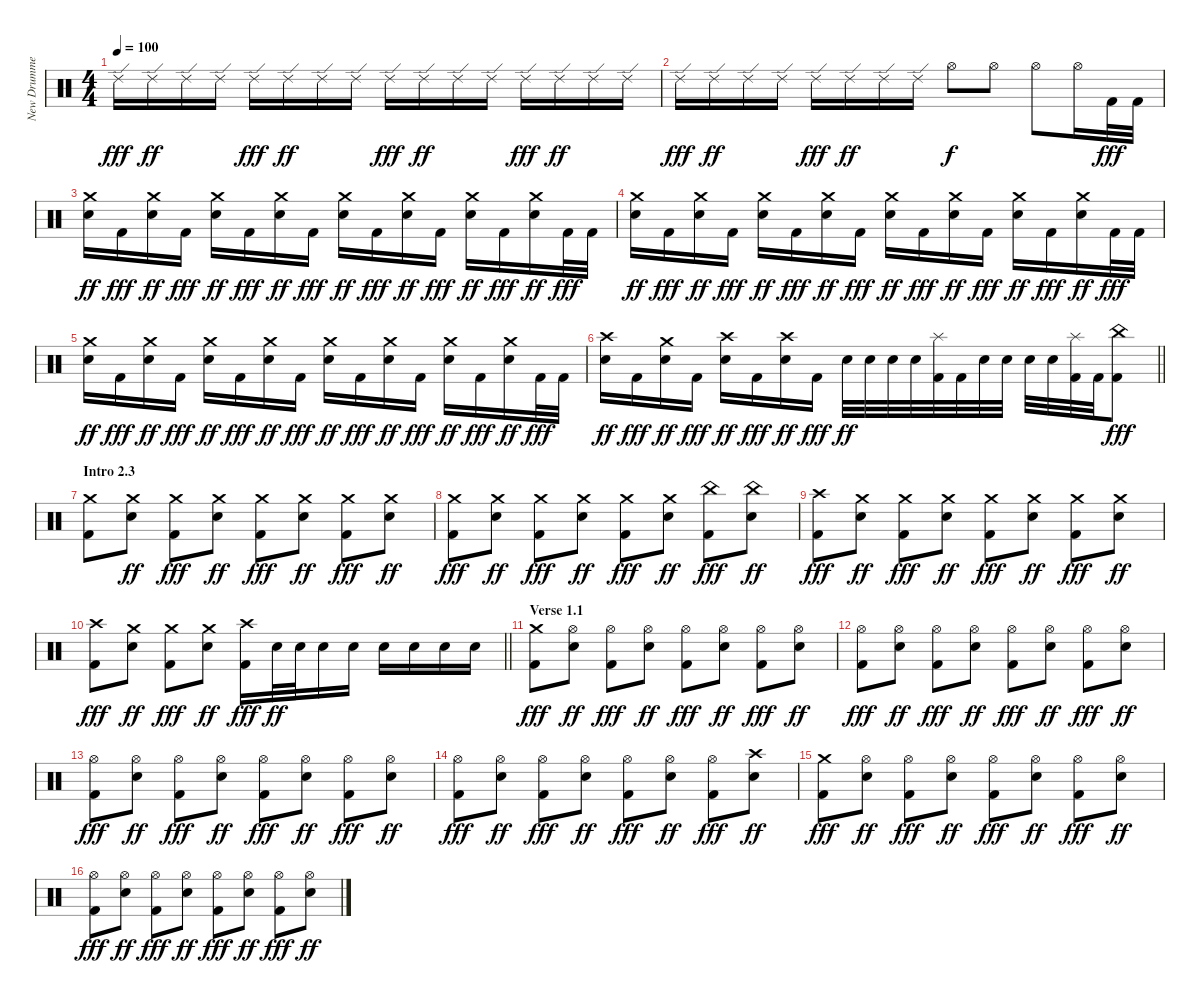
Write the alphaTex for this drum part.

\track ("New Drummer" "New Drumme") {instrument percussion}
\staff {score}
\articulation defaults
\ts (4 4)
\tempo 100
\clef neutral
\ks c "Ride (edge) 2".16{dy fff} "Ride (edge) 2".16{dy ff} "Ride (edge) 2".16 "Ride (edge) 2".16 "Ride (edge) 2".16{dy fff} "Ride (edge) 2".16{dy ff} "Ride (edge) 2".16 "Ride (edge) 2".16 "Ride (edge) 2".16{dy fff} "Ride (edge) 2".16{dy ff} "Ride (edge) 2".16 "Ride (edge) 2".16 "Ride (edge) 2".16{dy fff} "Ride (edge) 2".16{dy ff} "Ride (edge) 2".16 "Ride (edge) 2".16
|
"Ride (edge) 2".16{dy fff} "Ride (edge) 2".16{dy ff} "Ride (edge) 2".16 "Ride (edge) 2".16 "Ride (edge) 2".16{dy fff} "Ride (edge) 2".16{dy ff} "Ride (edge) 2".16 "Ride (edge) 2".16 "Hi-Hat (open)".8{dy f} "Hi-Hat (open)".8 "Hi-Hat (open)".8 "Hi-Hat (open)".16 "Kick (hit) 2".32{dy fff} "Kick (hit) 2".32 |
("Crash medium (hit)" "Electric Snare (hit)").16{dy ff} "Kick (hit) 2".16{dy fff} ("Crash medium (hit)" "Electric Snare (hit)").16{dy ff} "Kick (hit) 2".16{dy fff} ("Crash medium (hit)" "Electric Snare (hit)").16{dy ff} "Kick (hit) 2".16{dy fff} ("Crash medium (hit)" "Electric Snare (hit)").16{dy ff} "Kick (hit) 2".16{dy fff} ("Crash medium (hit)" "Electric Snare (hit)").16{dy ff} "Kick (hit) 2".16{dy fff} ("Crash medium (hit)" "Electric Snare (hit)").16{dy ff} "Kick (hit) 2".16{dy fff} ("Crash medium (hit)" "Electric Snare (hit)").16{dy ff} "Kick (hit) 2".16{dy fff} ("Crash medium (hit)" "Electric Snare (hit)").16{dy ff} "Kick (hit) 2".32{dy fff} "Kick (hit) 2".32 |
("Crash medium (hit)" "Electric Snare (hit)").16{dy ff} "Kick (hit) 2".16{dy fff} ("Crash medium (hit)" "Electric Snare (hit)").16{dy ff} "Kick (hit) 2".16{dy fff} ("Crash medium (hit)" "Electric Snare (hit)").16{dy ff} "Kick (hit) 2".16{dy fff} ("Crash medium (hit)" "Electric Snare (hit)").16{dy ff} "Kick (hit) 2".16{dy fff} ("Crash medium (hit)" "Electric Snare (hit)").16{dy ff} "Kick (hit) 2".16{dy fff} ("Crash medium (hit)" "Electric Snare (hit)").16{dy ff} "Kick (hit) 2".16{dy fff} ("Crash medium (hit)" "Electric Snare (hit)").16{dy ff} "Kick (hit) 2".16{dy fff} ("Crash medium (hit)" "Electric Snare (hit)").16{dy ff} "Kick (hit) 2".32{dy fff} "Kick (hit) 2".32 |
("Crash medium (hit)" "Electric Snare (hit)").16{dy ff} "Kick (hit) 2".16{dy fff} ("Crash medium (hit)" "Electric Snare (hit)").16{dy ff} "Kick (hit) 2".16{dy fff} ("Crash medium (hit)" "Electric Snare (hit)").16{dy ff} "Kick (hit) 2".16{dy fff} ("Crash medium (hit)" "Electric Snare (hit)").16{dy ff} "Kick (hit) 2".16{dy fff} ("Crash medium (hit)" "Electric Snare (hit)").16{dy ff} "Kick (hit) 2".16{dy fff} ("Crash medium (hit)" "Electric Snare (hit)").16{dy ff} "Kick (hit) 2".16{dy fff} ("Crash medium (hit)" "Electric Snare (hit)").16{dy ff} "Kick (hit) 2".16{dy fff} ("Crash medium (hit)" "Electric Snare (hit)").16{dy ff} "Kick (hit) 2".32{dy fff} "Kick (hit) 2".32 |
\barLineRight lightlight
("Crash high (hit)" "Electric Snare (hit)").16{dy ff} "Kick (hit) 2".16{dy fff} ("Crash medium (hit)" "Electric Snare (hit)").16{dy ff} "Kick (hit) 2".16{dy fff} ("Crash high (hit)" "Electric Snare (hit)").16{dy ff} "Kick (hit) 2".16{dy fff} ("Crash high (hit)" "Electric Snare (hit)").16{dy ff} "Kick (hit) 2".16{dy fff} "Electric Snare (hit)".32{dy ff} "Electric Snare (hit)".32 "Electric Snare (hit)".32 "Electric Snare (hit)".32 ("Splash (hit)" "Kick (hit) 2").32 "Kick (hit) 2".32 "Electric Snare (hit)".32 "Electric Snare (hit)".32 "Electric Snare (hit)".32 "Electric Snare (hit)".32 ("Splash (hit)" "Kick (hit) 2").32 "Kick (hit) 2".32 ("China (hit)" "Kick (hit) 2").8{dy fff} |
\section ("" "Intro 2.3")
("Crash medium (hit)" "Kick (hit) 2").8 ("Crash medium (hit)" "Electric Snare (hit)").8{dy ff} ("Crash medium (hit)" "Kick (hit) 2").8{dy fff} ("Crash medium (hit)" "Electric Snare (hit)").8{dy ff} ("Crash medium (hit)" "Kick (hit) 2").8{dy fff} ("Crash medium (hit)" "Electric Snare (hit)").8{dy ff} ("Crash medium (hit)" "Kick (hit) 2").8{dy fff} ("Crash medium (hit)" "Electric Snare (hit)").8{dy ff} |
("Crash medium (hit)" "Kick (hit) 2").8{dy fff} ("Crash medium (hit)" "Electric Snare (hit)").8{dy ff} ("Crash medium (hit)" "Kick (hit) 2").8{dy fff} ("Crash medium (hit)" "Electric Snare (hit)").8{dy ff} ("Crash medium (hit)" "Kick (hit) 2").8{dy fff} ("Crash medium (hit)" "Electric Snare (hit)").8{dy ff} ("China (hit)" "Kick (hit) 2").8{dy fff} ("China (hit)" "Electric Snare (hit)").8{dy ff} |
("Crash high (hit)" "Kick (hit) 2").8{dy fff} ("Crash medium (hit)" "Electric Snare (hit)").8{dy ff} ("Crash medium (hit)" "Kick (hit) 2").8{dy fff} ("Crash medium (hit)" "Electric Snare (hit)").8{dy ff} ("Crash medium (hit)" "Kick (hit) 2").8{dy fff} ("Crash medium (hit)" "Electric Snare (hit)").8{dy ff} ("Crash medium (hit)" "Kick (hit) 2").8{dy fff} ("Crash medium (hit)" "Electric Snare (hit)").8{dy ff} |
\barLineRight lightlight
("Crash high (hit)" "Kick (hit) 2").8{dy fff} ("Crash medium (hit)" "Electric Snare (hit)").8{dy ff} ("Crash medium (hit)" "Kick (hit) 2").8{dy fff} ("Crash medium (hit)" "Electric Snare (hit)").8{dy ff} ("Crash high (hit)" "Kick (hit) 2").16{dy fff} "Electric Snare (hit)".32{dy ff} "Electric Snare (hit)".32 "Electric Snare (hit)".16 "Electric Snare (hit)".16 "Electric Snare (hit)".16 "Electric Snare (hit)".16 "Electric Snare (hit)".16 "Electric Snare (hit)".16 |
\section ("" "Verse 1.1")
("Crash medium (hit)" "Kick (hit) 2").8{dy fff} ("Hi-Hat (open)" "Electric Snare (hit)").8{dy ff} ("Hi-Hat (open)" "Kick (hit) 2").8{dy fff} ("Hi-Hat (open)" "Electric Snare (hit)").8{dy ff} ("Hi-Hat (open)" "Kick (hit) 2").8{dy fff} ("Hi-Hat (open)" "Electric Snare (hit)").8{dy ff} ("Hi-Hat (open)" "Kick (hit) 2").8{dy fff} ("Hi-Hat (open)" "Electric Snare (hit)").8{dy ff} |
("Hi-Hat (open)" "Kick (hit) 2").8{dy fff} ("Hi-Hat (open)" "Electric Snare (hit)").8{dy ff} ("Hi-Hat (open)" "Kick (hit) 2").8{dy fff} ("Hi-Hat (open)" "Electric Snare (hit)").8{dy ff} ("Hi-Hat (open)" "Kick (hit) 2").8{dy fff} ("Hi-Hat (open)" "Electric Snare (hit)").8{dy ff} ("Hi-Hat (open)" "Kick (hit) 2").8{dy fff} ("Hi-Hat (open)" "Electric Snare (hit)").8{dy ff} |
("Hi-Hat (open)" "Kick (hit) 2").8{dy fff} ("Hi-Hat (open)" "Electric Snare (hit)").8{dy ff} ("Hi-Hat (open)" "Kick (hit) 2").8{dy fff} ("Hi-Hat (open)" "Electric Snare (hit)").8{dy ff} ("Hi-Hat (open)" "Kick (hit) 2").8{dy fff} ("Hi-Hat (open)" "Electric Snare (hit)").8{dy ff} ("Hi-Hat (open)" "Kick (hit) 2").8{dy fff} ("Hi-Hat (open)" "Electric Snare (hit)").8{dy ff} |
("Hi-Hat (open)" "Kick (hit) 2").8{dy fff} ("Hi-Hat (open)" "Electric Snare (hit)").8{dy ff} ("Hi-Hat (open)" "Kick (hit) 2").8{dy fff} ("Hi-Hat (open)" "Electric Snare (hit)").8{dy ff} ("Hi-Hat (open)" "Kick (hit) 2").8{dy fff} ("Hi-Hat (open)" "Electric Snare (hit)").8{dy ff} ("Hi-Hat (open)" "Kick (hit) 2").8{dy fff} ("Crash high (hit)" "Electric Snare (hit)").8{dy ff} |
("Crash medium (hit)" "Kick (hit) 2").8{dy fff} ("Hi-Hat (open)" "Electric Snare (hit)").8{dy ff} ("Hi-Hat (open)" "Kick (hit) 2").8{dy fff} ("Hi-Hat (open)" "Electric Snare (hit)").8{dy ff} ("Hi-Hat (open)" "Kick (hit) 2").8{dy fff} ("Hi-Hat (open)" "Electric Snare (hit)").8{dy ff} ("Hi-Hat (open)" "Kick (hit) 2").8{dy fff} ("Hi-Hat (open)" "Electric Snare (hit)").8{dy ff} |
("Hi-Hat (open)" "Kick (hit) 2").8{dy fff} ("Hi-Hat (open)" "Electric Snare (hit)").8{dy ff} ("Hi-Hat (open)" "Kick (hit) 2").8{dy fff} ("Hi-Hat (open)" "Electric Snare (hit)").8{dy ff} ("Hi-Hat (open)" "Kick (hit) 2").8{dy fff} ("Hi-Hat (open)" "Electric Snare (hit)").8{dy ff} ("Hi-Hat (open)" "Kick (hit) 2").8{dy fff} ("Hi-Hat (open)" "Electric Snare (hit)").8{dy ff}
